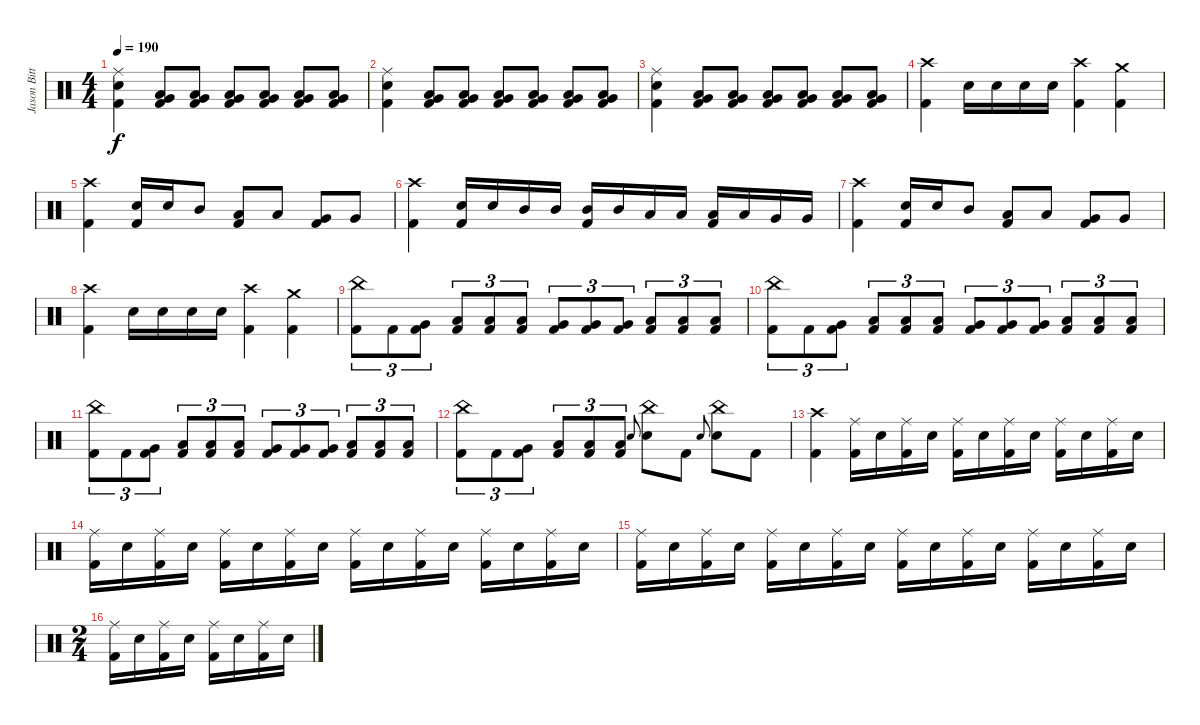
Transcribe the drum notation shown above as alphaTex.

\track ("Jason Bittner" "Jason Bitt") {instrument percussion}
\staff {score}
\articulation defaults
\ts (4 4)
\tempo 190
\clef neutral
\ks c
("Ride (middle)" "Electric Snare (hit)" "Kick (hit) 2").4{dy f} ("Very Low Tom (hit)" "Low Floor Tom (hit)" "Kick (hit) 2").8 ("Very Low Tom (hit)" "Low Floor Tom (hit)" "Kick (hit) 2").8 ("Very Low Tom (hit)" "Low Floor Tom (hit)" "Kick (hit) 2").8 ("Very Low Tom (hit)" "Low Floor Tom (hit)" "Kick (hit) 2").8 ("Very Low Tom (hit)" "Low Floor Tom (hit)" "Kick (hit) 2").8 ("Very Low Tom (hit)" "Low Floor Tom (hit)" "Kick (hit) 2").8 |
("Ride (middle)" "Electric Snare (hit)" "Kick (hit) 2").4 ("Very Low Tom (hit)" "Low Floor Tom (hit)" "Kick (hit) 2").8 ("Very Low Tom (hit)" "Low Floor Tom (hit)" "Kick (hit) 2").8 ("Very Low Tom (hit)" "Low Floor Tom (hit)" "Kick (hit) 2").8 ("Very Low Tom (hit)" "Low Floor Tom (hit)" "Kick (hit) 2").8 ("Very Low Tom (hit)" "Low Floor Tom (hit)" "Kick (hit) 2").8 ("Very Low Tom (hit)" "Low Floor Tom (hit)" "Kick (hit) 2").8 |
("Ride (middle)" "Electric Snare (hit)" "Kick (hit) 2").4 ("Very Low Tom (hit)" "Low Floor Tom (hit)" "Kick (hit) 2").8 ("Very Low Tom (hit)" "Low Floor Tom (hit)" "Kick (hit) 2").8 ("Very Low Tom (hit)" "Low Floor Tom (hit)" "Kick (hit) 2").8 ("Very Low Tom (hit)" "Low Floor Tom (hit)" "Kick (hit) 2").8 ("Very Low Tom (hit)" "Low Floor Tom (hit)" "Kick (hit) 2").8 ("Very Low Tom (hit)" "Low Floor Tom (hit)" "Kick (hit) 2").8 |
("Crash high (hit)" "Kick (hit) 2").4 "Electric Snare (hit)".16 "Electric Snare (hit)".16 "Electric Snare (hit)".16 "Electric Snare (hit)".16 ("Crash high (hit)" "Kick (hit) 2").4 ("Crash medium (hit)" "Kick (hit) 2").4 |
("Crash high (hit)" "Kick (hit) 2").4 ("Electric Snare (hit)" "Kick (hit) 2").16 "Electric Snare (hit)".16 "Mid Tom (hit)".8 ("Low Tom (hit)" "Kick (hit) 2").8 "Low Tom (hit)".8 ("Very Low Tom (hit)" "Kick (hit) 2").8 "Very Low Tom (hit)".8 |
("Crash high (hit)" "Kick (hit) 2").4 ("Electric Snare (hit)" "Kick (hit) 2").16 "Electric Snare (hit)".16 "Mid Tom (hit)".16 "Mid Tom (hit)".16 ("Mid Tom (hit)" "Kick (hit) 2").16 "Mid Tom (hit)".16 "Low Tom (hit)".16 "Low Tom (hit)".16 ("Low Tom (hit)" "Kick (hit) 2").16 "Low Tom (hit)".16 "Very Low Tom (hit)".16 "Very Low Tom (hit)".16 |
("Crash high (hit)" "Kick (hit) 2").4 ("Electric Snare (hit)" "Kick (hit) 2").16 "Electric Snare (hit)".16 "Mid Tom (hit)".8 ("Low Tom (hit)" "Kick (hit) 2").8 "Low Tom (hit)".8 ("Very Low Tom (hit)" "Kick (hit) 2").8 "Very Low Tom (hit)".8 |
("Crash high (hit)" "Kick (hit) 2").4 "Electric Snare (hit)".16 "Electric Snare (hit)".16 "Electric Snare (hit)".16 "Electric Snare (hit)".16 ("Crash high (hit)" "Kick (hit) 2").4 ("Crash medium (hit)" "Kick (hit) 2").4 |
("China (hit)" "Kick (hit) 2").8{tu (3 2)} "Kick (hit) 2".8{tu (3 2)} ("Very Low Tom (hit)" "Kick (hit) 2").8{tu (3 2)} ("Low Floor Tom (hit)" "Kick (hit) 2").8{tu (3 2)} ("Low Floor Tom (hit)" "Kick (hit) 2").8{tu (3 2)} ("Low Floor Tom (hit)" "Kick (hit) 2").8{tu (3 2)} ("Very Low Tom (hit)" "Kick (hit) 2").8{tu (3 2)} ("Very Low Tom (hit)" "Kick (hit) 2").8{tu (3 2)} ("Very Low Tom (hit)" "Kick (hit) 2").8{tu (3 2)} ("Low Floor Tom (hit)" "Kick (hit) 2").8{tu (3 2)} ("Low Floor Tom (hit)" "Kick (hit) 2").8{tu (3 2)} ("Low Floor Tom (hit)" "Kick (hit) 2").8{tu (3 2)} |
("China (hit)" "Kick (hit) 2").8{tu (3 2)} "Kick (hit) 2".8{tu (3 2)} ("Very Low Tom (hit)" "Kick (hit) 2").8{tu (3 2)} ("Low Floor Tom (hit)" "Kick (hit) 2").8{tu (3 2)} ("Low Floor Tom (hit)" "Kick (hit) 2").8{tu (3 2)} ("Low Floor Tom (hit)" "Kick (hit) 2").8{tu (3 2)} ("Very Low Tom (hit)" "Kick (hit) 2").8{tu (3 2)} ("Very Low Tom (hit)" "Kick (hit) 2").8{tu (3 2)} ("Very Low Tom (hit)" "Kick (hit) 2").8{tu (3 2)} ("Low Floor Tom (hit)" "Kick (hit) 2").8{tu (3 2)} ("Low Floor Tom (hit)" "Kick (hit) 2").8{tu (3 2)} ("Low Floor Tom (hit)" "Kick (hit) 2").8{tu (3 2)} |
("China (hit)" "Kick (hit) 2").8{tu (3 2)} "Kick (hit) 2".8{tu (3 2)} ("Very Low Tom (hit)" "Kick (hit) 2").8{tu (3 2)} ("Low Floor Tom (hit)" "Kick (hit) 2").8{tu (3 2)} ("Low Floor Tom (hit)" "Kick (hit) 2").8{tu (3 2)} ("Low Floor Tom (hit)" "Kick (hit) 2").8{tu (3 2)} ("Very Low Tom (hit)" "Kick (hit) 2").8{tu (3 2)} ("Very Low Tom (hit)" "Kick (hit) 2").8{tu (3 2)} ("Very Low Tom (hit)" "Kick (hit) 2").8{tu (3 2)} ("Low Floor Tom (hit)" "Kick (hit) 2").8{tu (3 2)} ("Low Floor Tom (hit)" "Kick (hit) 2").8{tu (3 2)} ("Low Floor Tom (hit)" "Kick (hit) 2").8{tu (3 2)} |
("China (hit)" "Kick (hit) 2").8{tu (3 2)} "Kick (hit) 2".8{tu (3 2)} ("Very Low Tom (hit)" "Kick (hit) 2").8{tu (3 2)} ("Low Floor Tom (hit)" "Kick (hit) 2").8{tu (3 2)} ("Low Floor Tom (hit)" "Kick (hit) 2").8{tu (3 2)} ("Low Floor Tom (hit)" "Kick (hit) 2").8{tu (3 2)} "Electric Snare (hit)".8{gr onbeat} ("China (hit)" "Electric Snare (hit)").8 "Kick (hit) 2".8 "Electric Snare (hit)".8{gr onbeat} ("China (hit)" "Electric Snare (hit)").8 "Kick (hit) 2".8 |
("Crash high (hit)" "Kick (hit) 2").4 ("Ride (middle)" "Kick (hit) 2").16 "Snare (hit) 2".16 ("Ride (middle)" "Kick (hit) 2").16 "Snare (hit) 2".16 ("Ride (middle)" "Kick (hit) 2").16 "Snare (hit) 2".16 ("Ride (middle)" "Kick (hit) 2").16 "Snare (hit) 2".16 ("Ride (middle)" "Kick (hit) 2").16 "Snare (hit) 2".16 ("Ride (middle)" "Kick (hit) 2").16 "Snare (hit) 2".16 |
("Ride (middle)" "Kick (hit) 2").16 "Snare (hit) 2".16 ("Ride (middle)" "Kick (hit) 2").16 "Snare (hit) 2".16 ("Ride (middle)" "Kick (hit) 2").16 "Snare (hit) 2".16 ("Ride (middle)" "Kick (hit) 2").16 "Snare (hit) 2".16 ("Ride (middle)" "Kick (hit) 2").16 "Snare (hit) 2".16 ("Ride (middle)" "Kick (hit) 2").16 "Snare (hit) 2".16 ("Ride (middle)" "Kick (hit) 2").16 "Snare (hit) 2".16 ("Ride (middle)" "Kick (hit) 2").16 "Snare (hit) 2".16 |
("Ride (middle)" "Kick (hit) 2").16 "Snare (hit) 2".16 ("Ride (middle)" "Kick (hit) 2").16 "Snare (hit) 2".16 ("Ride (middle)" "Kick (hit) 2").16 "Snare (hit) 2".16 ("Ride (middle)" "Kick (hit) 2").16 "Snare (hit) 2".16 ("Ride (middle)" "Kick (hit) 2").16 "Snare (hit) 2".16 ("Ride (middle)" "Kick (hit) 2").16 "Snare (hit) 2".16 ("Ride (middle)" "Kick (hit) 2").16 "Snare (hit) 2".16 ("Ride (middle)" "Kick (hit) 2").16 "Snare (hit) 2".16 |
\ts (2 4)
("Ride (middle)" "Kick (hit) 2").16 "Snare (hit) 2".16 ("Ride (middle)" "Kick (hit) 2").16 "Snare (hit) 2".16 ("Ride (middle)" "Kick (hit) 2").16 "Snare (hit) 2".16 ("Ride (middle)" "Kick (hit) 2").16 "Snare (hit) 2".16
